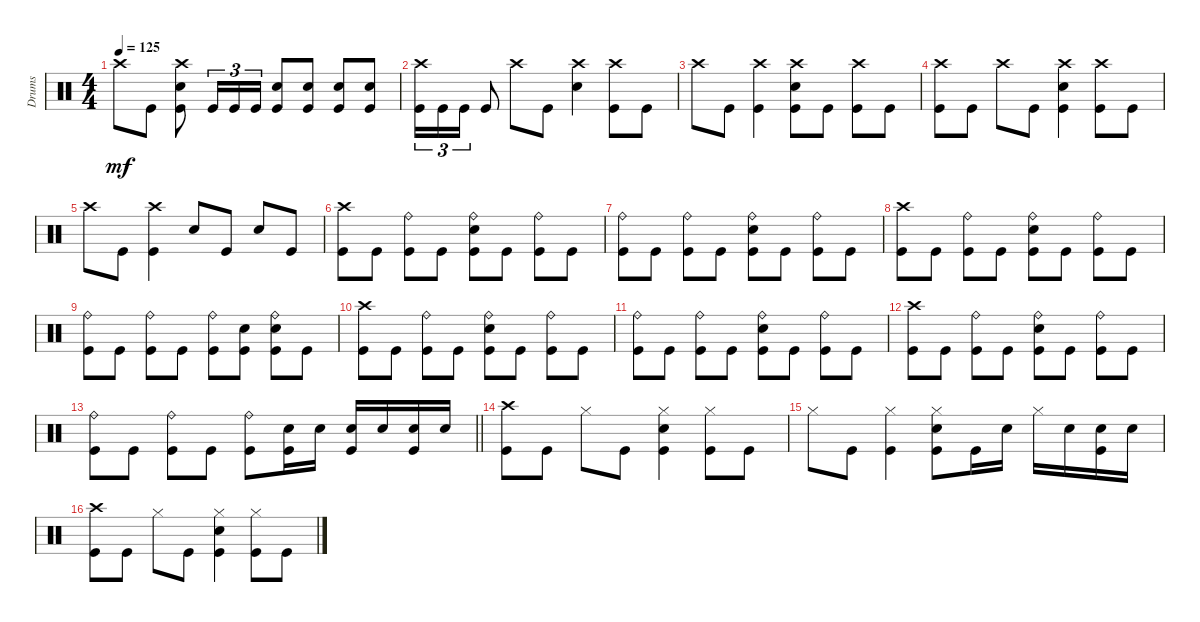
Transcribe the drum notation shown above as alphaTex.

\track ("Drums" "Drums") {instrument percussion}
\staff {score}
\articulation defaults
\ts (4 4)
\tempo 125
\clef neutral
\ks c "Crash high (hit)".8{dy mf} "Kick (hit)".8
("Kick (hit)" "Snare (hit) 2" "Crash high (hit)").8 "Kick (hit)".16{tu (3 2)} "Kick (hit)".16{tu (3 2)} "Kick (hit)".16{tu (3 2)} ("Kick (hit)" "Snare (hit) 2").8 ("Kick (hit)" "Snare (hit) 2").8 ("Kick (hit)" "Snare (hit) 2").8 ("Kick (hit)" "Snare (hit) 2").8 |
("Crash high (hit)" "Kick (hit)").16{tu (3 2)} "Kick (hit)".16{tu (3 2)} "Kick (hit)".16{tu (3 2)} "Kick (hit)".8 "Crash high (hit)".8 "Kick (hit)".8 ("Snare (hit) 2" "Crash high (hit)").4 ("Crash high (hit)" "Kick (hit)").8 "Kick (hit)".8 |
"Crash high (hit)".8 "Kick (hit)".8 ("Crash high (hit)" "Kick (hit)").4 ("Snare (hit) 2" "Crash high (hit)" "Kick (hit)").8 "Kick (hit)".8 ("Kick (hit)" "Crash high (hit)").8 "Kick (hit)".8 |
("Kick (hit)" "Crash high (hit)").8 "Kick (hit)".8 "Crash high (hit)".8 "Kick (hit)".8 ("Kick (hit)" "Snare (hit) 2" "Crash high (hit)").4 ("Kick (hit)" "Crash high (hit)").8 "Kick (hit)".8 |
"Crash high (hit)".8 "Kick (hit)".8 ("Kick (hit)" "Crash high (hit)").4 "Snare (hit) 2".8 "Kick (hit)".8 "Snare (hit) 2".8 "Kick (hit)".8 |
("Crash high (hit)" "Kick (hit)").8 "Kick (hit)".8 ("Ride (bell)" "Kick (hit)").8 "Kick (hit)".8 ("Snare (hit) 2" "Ride (bell)" "Kick (hit)").8 "Kick (hit)".8 ("Ride (bell)" "Kick (hit)").8 "Kick (hit)".8 |
("Kick (hit)" "Ride (bell)").8 "Kick (hit)".8 ("Kick (hit)" "Ride (bell)").8 "Kick (hit)".8 ("Kick (hit)" "Snare (hit) 2" "Ride (bell)").8 "Kick (hit)".8 ("Kick (hit)" "Ride (bell)").8 "Kick (hit)".8 |
("Kick (hit)" "Crash high (hit)").8 "Kick (hit)".8 ("Kick (hit)" "Ride (bell)").8 "Kick (hit)".8 ("Kick (hit)" "Snare (hit) 2" "Ride (bell)").8 "Kick (hit)".8 ("Kick (hit)" "Ride (bell)").8 "Kick (hit)".8 |
("Ride (bell)" "Kick (hit)").8 "Kick (hit)".8 ("Ride (bell)" "Kick (hit)").8 "Kick (hit)".8 ("Ride (bell)" "Kick (hit)").8 ("Snare (hit) 2" "Kick (hit)").8 ("Snare (hit) 2" "Ride (bell)" "Kick (hit)").8 "Kick (hit)".8 |
("Kick (hit)" "Crash high (hit)").8 "Kick (hit)".8 ("Kick (hit)" "Ride (bell)").8 "Kick (hit)".8 ("Kick (hit)" "Snare (hit) 2" "Ride (bell)").8 "Kick (hit)".8 ("Kick (hit)" "Ride (bell)").8 "Kick (hit)".8 |
("Ride (bell)" "Kick (hit)").8 "Kick (hit)".8 ("Ride (bell)" "Kick (hit)").8 "Kick (hit)".8 ("Snare (hit) 2" "Ride (bell)" "Kick (hit)").8 "Kick (hit)".8 ("Ride (bell)" "Kick (hit)").8 "Kick (hit)".8 |
("Crash high (hit)" "Kick (hit)").8 "Kick (hit)".8 ("Ride (bell)" "Kick (hit)").8 "Kick (hit)".8 ("Snare (hit) 2" "Ride (bell)" "Kick (hit)").8 "Kick (hit)".8 ("Ride (bell)" "Kick (hit)").8 "Kick (hit)".8 |
\barLineRight lightlight
("Kick (hit)" "Ride (bell)").8 "Kick (hit)".8 ("Kick (hit)" "Ride (bell)").8 "Kick (hit)".8 ("Kick (hit)" "Ride (bell)").8 ("Kick (hit)" "Snare (hit) 2").16 "Snare (hit) 2".16 ("Snare (hit) 2" "Kick (hit)").16 "Snare (hit) 2".16 ("Snare (hit) 2" "Kick (hit)").16 "Snare (hit) 2".16 |
("Crash high (hit)" "Kick (hit)").8 "Kick (hit)".8 "Hi-Hat (closed)".8 "Kick (hit)".8 ("Snare (hit) 2" "Hi-Hat (closed)" "Kick (hit)").4 ("Hi-Hat (closed)" "Kick (hit)").8 "Kick (hit)".8 |
"Hi-Hat (closed)".8 "Kick (hit)".8 ("Kick (hit)" "Hi-Hat (closed)").4 ("Kick (hit)" "Snare (hit) 2" "Hi-Hat (closed)").8 "Kick (hit)".16 "Snare (hit) 2".16 "Hi-Hat (closed)".16 "Snare (hit) 2".16 ("Kick (hit)" "Snare (hit) 2").16 "Snare (hit) 2".16 |
("Kick (hit)" "Crash high (hit)").8 "Kick (hit)".8 "Hi-Hat (closed)".8 "Kick (hit)".8 ("Kick (hit)" "Snare (hit) 2" "Hi-Hat (closed)").4 ("Kick (hit)" "Hi-Hat (closed)").8 "Kick (hit)".8
